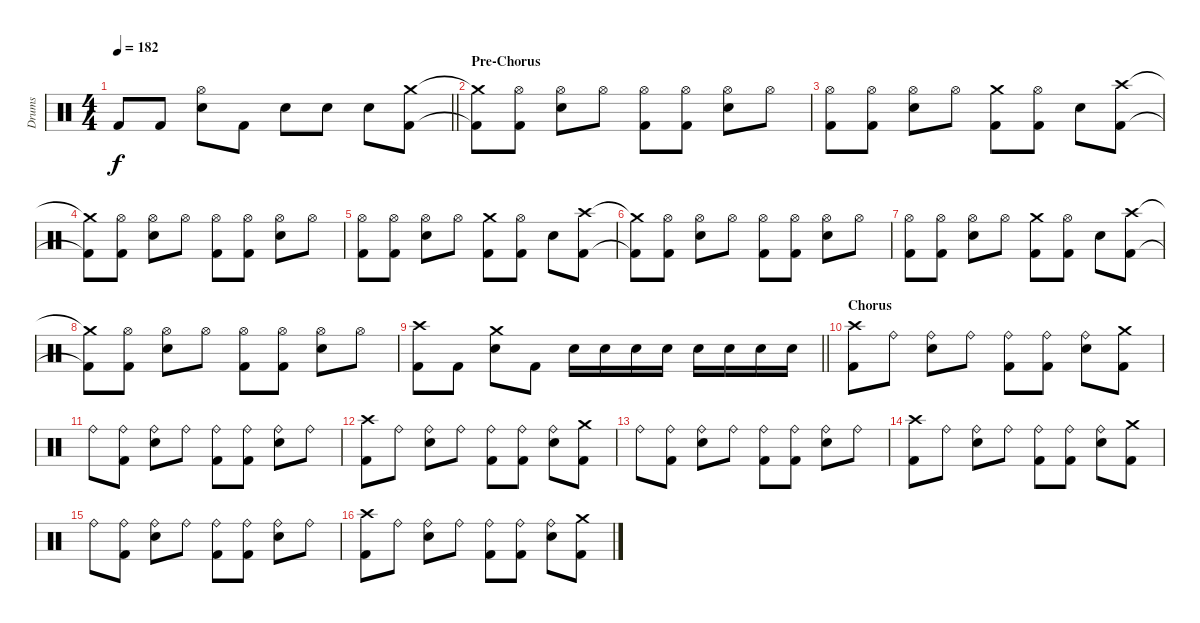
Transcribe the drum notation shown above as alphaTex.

\track ("Drums" "Drums") {instrument percussion}
\staff {score}
\articulation defaults
\ts (4 4)
\tempo 182
\clef neutral
\barLineRight lightlight
\ks c "Kick (hit) 2".8{dy f} "Kick (hit) 2".8
("Hi-Hat (open)" "Snare (hit) 2").8 "Kick (hit) 2".8 "Snare (hit) 2".8 "Snare (hit) 2".8 "Snare (hit) 2".8 ("Crash medium (hit)" "Kick (hit) 2").8 |
\section ("" "Pre-Chorus")
("Crash medium (hit)"{t} "Kick (hit) 2"{t}).8 ("Hi-Hat (open)" "Kick (hit) 2").8 ("Hi-Hat (open)" "Snare (hit) 2").8 "Hi-Hat (open)".8 ("Hi-Hat (open)" "Kick (hit) 2").8 ("Hi-Hat (open)" "Kick (hit) 2").8 ("Hi-Hat (open)" "Snare (hit) 2").8 "Hi-Hat (open)".8 |
("Hi-Hat (open)" "Kick (hit) 2").8 ("Hi-Hat (open)" "Kick (hit) 2").8 ("Hi-Hat (open)" "Snare (hit) 2").8 "Hi-Hat (open)".8 ("Crash medium (hit)" "Kick (hit) 2").8 ("Hi-Hat (open)" "Kick (hit) 2").8 "Snare (hit) 2".8 ("Crash high (hit)" "Kick (hit) 2").8 |
("Crash medium (hit)"{t} "Kick (hit) 2"{t}).8 ("Hi-Hat (open)" "Kick (hit) 2").8 ("Hi-Hat (open)" "Snare (hit) 2").8 "Hi-Hat (open)".8 ("Hi-Hat (open)" "Kick (hit) 2").8 ("Hi-Hat (open)" "Kick (hit) 2").8 ("Hi-Hat (open)" "Snare (hit) 2").8 "Hi-Hat (open)".8 |
("Hi-Hat (open)" "Kick (hit) 2").8 ("Hi-Hat (open)" "Kick (hit) 2").8 ("Hi-Hat (open)" "Snare (hit) 2").8 "Hi-Hat (open)".8 ("Crash medium (hit)" "Kick (hit) 2").8 ("Hi-Hat (open)" "Kick (hit) 2").8 "Snare (hit) 2".8 ("Crash high (hit)" "Kick (hit) 2").8 |
("Crash medium (hit)"{t} "Kick (hit) 2"{t}).8 ("Hi-Hat (open)" "Kick (hit) 2").8 ("Hi-Hat (open)" "Snare (hit) 2").8 "Hi-Hat (open)".8 ("Hi-Hat (open)" "Kick (hit) 2").8 ("Hi-Hat (open)" "Kick (hit) 2").8 ("Hi-Hat (open)" "Snare (hit) 2").8 "Hi-Hat (open)".8 |
("Hi-Hat (open)" "Kick (hit) 2").8 ("Hi-Hat (open)" "Kick (hit) 2").8 ("Hi-Hat (open)" "Snare (hit) 2").8 "Hi-Hat (open)".8 ("Crash medium (hit)" "Kick (hit) 2").8 ("Hi-Hat (open)" "Kick (hit) 2").8 "Snare (hit) 2".8 ("Crash high (hit)" "Kick (hit) 2").8 |
("Crash medium (hit)"{t} "Kick (hit) 2"{t}).8 ("Hi-Hat (open)" "Kick (hit) 2").8 ("Hi-Hat (open)" "Snare (hit) 2").8 "Hi-Hat (open)".8 ("Hi-Hat (open)" "Kick (hit) 2").8 ("Hi-Hat (open)" "Kick (hit) 2").8 ("Hi-Hat (open)" "Snare (hit) 2").8 "Hi-Hat (open)".8 |
\barLineRight lightlight
("Crash high (hit)" "Kick (hit) 2").8 "Kick (hit) 2".8 ("Crash medium (hit)" "Snare (hit) 2").8 "Kick (hit) 2".8 "Snare (hit) 2".16 "Snare (hit) 2".16 "Snare (hit) 2".16 "Snare (hit) 2".16 "Snare (hit) 2".16 "Snare (hit) 2".16 "Snare (hit) 2".16 "Snare (hit) 2".16 |
\section ("" "Chorus")
("Crash high (hit)" "Kick (hit) 2").8 "Ride (bell)".8 ("Ride (bell)" "Snare (hit) 2").8 "Ride (bell)".8 ("Ride (bell)" "Kick (hit) 2").8 ("Ride (bell)" "Kick (hit) 2").8 ("Ride (bell)" "Snare (hit) 2").8 ("Crash medium (hit)" "Kick (hit) 2").8 |
"Ride (bell)".8 ("Ride (bell)" "Kick (hit) 2").8 ("Ride (bell)" "Snare (hit) 2").8 "Ride (bell)".8 ("Ride (bell)" "Kick (hit) 2").8 ("Ride (bell)" "Kick (hit) 2").8 ("Ride (bell)" "Snare (hit) 2").8 "Ride (bell)".8 |
("Crash high (hit)" "Kick (hit) 2").8 "Ride (bell)".8 ("Ride (bell)" "Snare (hit) 2").8 "Ride (bell)".8 ("Ride (bell)" "Kick (hit) 2").8 ("Ride (bell)" "Kick (hit) 2").8 ("Ride (bell)" "Snare (hit) 2").8 ("Crash medium (hit)" "Kick (hit) 2").8 |
"Ride (bell)".8 ("Ride (bell)" "Kick (hit) 2").8 ("Ride (bell)" "Snare (hit) 2").8 "Ride (bell)".8 ("Ride (bell)" "Kick (hit) 2").8 ("Ride (bell)" "Kick (hit) 2").8 ("Ride (bell)" "Snare (hit) 2").8 "Ride (bell)".8 |
("Crash high (hit)" "Kick (hit) 2").8 "Ride (bell)".8 ("Ride (bell)" "Snare (hit) 2").8 "Ride (bell)".8 ("Ride (bell)" "Kick (hit) 2").8 ("Ride (bell)" "Kick (hit) 2").8 ("Ride (bell)" "Snare (hit) 2").8 ("Crash medium (hit)" "Kick (hit) 2").8 |
"Ride (bell)".8 ("Ride (bell)" "Kick (hit) 2").8 ("Ride (bell)" "Snare (hit) 2").8 "Ride (bell)".8 ("Ride (bell)" "Kick (hit) 2").8 ("Ride (bell)" "Kick (hit) 2").8 ("Ride (bell)" "Snare (hit) 2").8 "Ride (bell)".8 |
("Crash high (hit)" "Kick (hit) 2").8 "Ride (bell)".8 ("Ride (bell)" "Snare (hit) 2").8 "Ride (bell)".8 ("Ride (bell)" "Kick (hit) 2").8 ("Ride (bell)" "Kick (hit) 2").8 ("Ride (bell)" "Snare (hit) 2").8 ("Crash medium (hit)" "Kick (hit) 2").8
